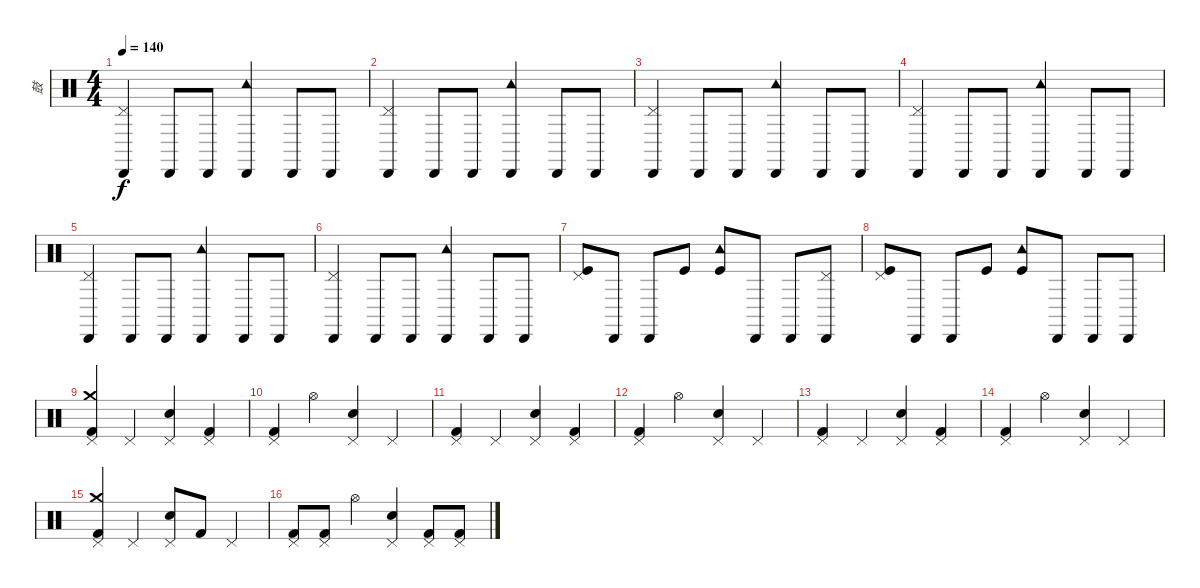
\track ("鼓" "鼓") {instrument percussion}
\staff {score}
\articulation defaults
\ts (4 4)
\tempo 140
\clef neutral
\ks c
("Pedal Hi-Hat (hit)" "Cabasa (hit)").4{dy f} "Cabasa (hit)".8 "Cabasa (hit)".8 ("Tambourine (hit)" "Cabasa (hit)").4 "Cabasa (hit)".8 "Cabasa (hit)".8 |
("Pedal Hi-Hat (hit)" "Cabasa (hit)").4 "Cabasa (hit)".8 "Cabasa (hit)".8 ("Tambourine (hit)" "Cabasa (hit)").4 "Cabasa (hit)".8 "Cabasa (hit)".8 |
("Pedal Hi-Hat (hit)" "Cabasa (hit)").4 "Cabasa (hit)".8 "Cabasa (hit)".8 ("Tambourine (hit)" "Cabasa (hit)").4 "Cabasa (hit)".8 "Cabasa (hit)".8 |
("Pedal Hi-Hat (hit)" "Cabasa (hit)").4 "Cabasa (hit)".8 "Cabasa (hit)".8 ("Tambourine (hit)" "Cabasa (hit)").4 "Cabasa (hit)".8 "Cabasa (hit)".8 |
("Pedal Hi-Hat (hit)" "Cabasa (hit)").4 "Cabasa (hit)".8 "Cabasa (hit)".8 ("Tambourine (hit)" "Cabasa (hit)").4 "Cabasa (hit)".8 "Cabasa (hit)".8 |
("Pedal Hi-Hat (hit)" "Cabasa (hit)").4 "Cabasa (hit)".8 "Cabasa (hit)".8 ("Tambourine (hit)" "Cabasa (hit)").4 "Cabasa (hit)".8 "Cabasa (hit)".8 |
("Pedal Hi-Hat (hit)" "Kick (hit)").8 "Cabasa (hit)".8 "Cabasa (hit)".8 "Kick (hit)".8 ("Tambourine (hit)" "Kick (hit)").8 "Cabasa (hit)".8 "Cabasa (hit)".8 ("Pedal Hi-Hat (hit)" "Cabasa (hit)").8 |
("Pedal Hi-Hat (hit)" "Kick (hit)").8 "Cabasa (hit)".8 "Cabasa (hit)".8 "Kick (hit)".8 ("Tambourine (hit)" "Kick (hit)").8 "Cabasa (hit)".8 "Cabasa (hit)".8 "Cabasa (hit)".8 |
("Crash medium (hit)" "Pedal Hi-Hat (hit)" "Kick (hit) 2").4 "Pedal Hi-Hat (hit)".4 ("Pedal Hi-Hat (hit)" "Snare (hit) 2").4 ("Pedal Hi-Hat (hit)" "Kick (hit) 2").4 |
("Pedal Hi-Hat (hit)" "Kick (hit) 2").4 "Hi-Hat (open)".4 ("Pedal Hi-Hat (hit)" "Snare (hit) 2").4 "Pedal Hi-Hat (hit)".4 |
("Pedal Hi-Hat (hit)" "Kick (hit) 2").4 "Pedal Hi-Hat (hit)".4 ("Pedal Hi-Hat (hit)" "Snare (hit) 2").4 ("Pedal Hi-Hat (hit)" "Kick (hit) 2").4 |
("Pedal Hi-Hat (hit)" "Kick (hit) 2").4 "Hi-Hat (open)".4 ("Pedal Hi-Hat (hit)" "Snare (hit) 2").4 "Pedal Hi-Hat (hit)".4 |
("Pedal Hi-Hat (hit)" "Kick (hit) 2").4 "Pedal Hi-Hat (hit)".4 ("Pedal Hi-Hat (hit)" "Snare (hit) 2").4 ("Pedal Hi-Hat (hit)" "Kick (hit) 2").4 |
("Pedal Hi-Hat (hit)" "Kick (hit) 2").4 "Hi-Hat (open)".4 ("Pedal Hi-Hat (hit)" "Snare (hit) 2").4 "Pedal Hi-Hat (hit)".4 |
("Crash medium (hit)" "Pedal Hi-Hat (hit)" "Kick (hit) 2").4 "Pedal Hi-Hat (hit)".4 ("Pedal Hi-Hat (hit)" "Snare (hit) 2").8 "Kick (hit) 2".8 "Pedal Hi-Hat (hit)".4 |
("Pedal Hi-Hat (hit)" "Kick (hit) 2").8 ("Pedal Hi-Hat (hit)" "Kick (hit) 2").8 "Hi-Hat (open)".4 ("Pedal Hi-Hat (hit)" "Snare (hit) 2").4 ("Pedal Hi-Hat (hit)" "Kick (hit) 2").8 ("Pedal Hi-Hat (hit)" "Kick (hit) 2").8
